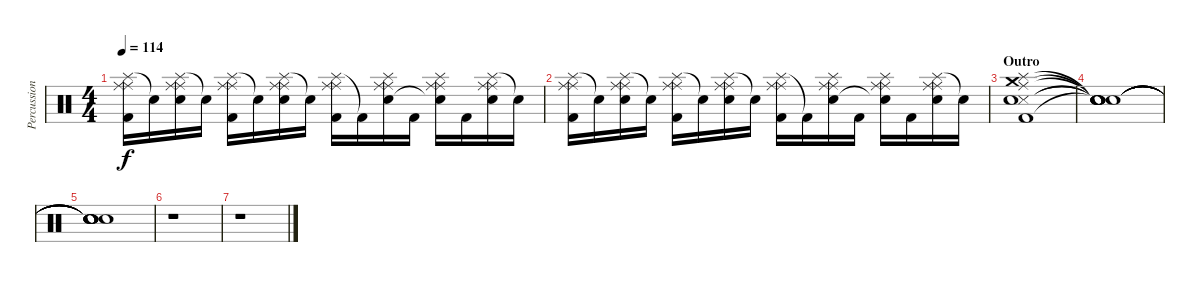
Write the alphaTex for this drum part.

\track ("Percussion" "Percussion") {instrument percussion}
\staff {score}
\articulation defaults
\ts (4 4)
\tempo 114
\clef neutral
\ks c
("Splash (hit)" "Ride (middle)" "Ride (middle)" "Kick (hit) 2").16{dy f} "Snare (hit)"{t}.16 ("Splash (hit)" "Ride (middle)" "Ride (middle)" "Snare (hit) 2").16 "Snare (hit)"{t}.16 ("Splash (hit)" "Ride (middle)" "Ride (middle)" "Kick (hit) 2").16 "Snare (hit)"{t}.16 ("Splash (hit)" "Ride (middle)" "Ride (middle)" "Snare (hit) 2").16 "Snare (hit)"{t}.16 ("Splash (hit)" "Ride (middle)" "Ride (middle)" "Kick (hit) 2").16 "Kick (hit) 2"{t}.16 ("Splash (hit)" "Ride (middle)" "Ride (middle)" "Snare (hit) 2").16 "Kick (hit) 2".16 ("Splash (hit)" "Ride (middle)" "Ride (middle)" "Snare (hit)"{t}).16 "Kick (hit) 2".16 ("Splash (hit)" "Ride (middle)" "Ride (middle)" "Snare (hit) 2").16 "Snare (hit)"{t}.16 |
("Splash (hit)" "Ride (middle)" "Ride (middle)" "Kick (hit) 2").16 "Snare (hit)"{t}.16 ("Splash (hit)" "Ride (middle)" "Ride (middle)" "Snare (hit) 2").16 "Snare (hit)"{t}.16 ("Splash (hit)" "Ride (middle)" "Ride (middle)" "Kick (hit) 2").16 "Snare (hit)"{t}.16 ("Splash (hit)" "Ride (middle)" "Ride (middle)" "Snare (hit) 2").16 "Snare (hit)"{t}.16 ("Splash (hit)" "Ride (middle)" "Ride (middle)" "Kick (hit) 2").16 "Kick (hit) 2"{t}.16 ("Splash (hit)" "Ride (middle)" "Ride (middle)" "Snare (hit) 2").16 "Kick (hit) 2".16 ("Splash (hit)" "Ride (middle)" "Ride (middle)" "Snare (hit)"{t}).16 "Kick (hit) 2".16 ("Splash (hit)" "Ride (middle)" "Ride (middle)" "Snare (hit) 2").16 "Snare (hit)"{t}.16 |
\section ("" "Outro")
("Ride (middle)" "Crash medium (hit)" "Splash (hit)" "Snare (side stick) 3" "Snare (hit) 2" "Kick (hit) 2").1 |
("Snare (hit)"{t} "Snare (hit)"{t} "Snare (hit)"{t} "Snare (hit)"{t} "Snare (hit)"{t} "Snare (hit)"{t}).1 |
("Snare (hit)"{t} "Snare (hit)"{t} "Snare (hit)"{t} "Snare (hit)"{t} "Snare (hit)"{t} "Snare (hit)"{t}).1 |
r.1 |
r.1
